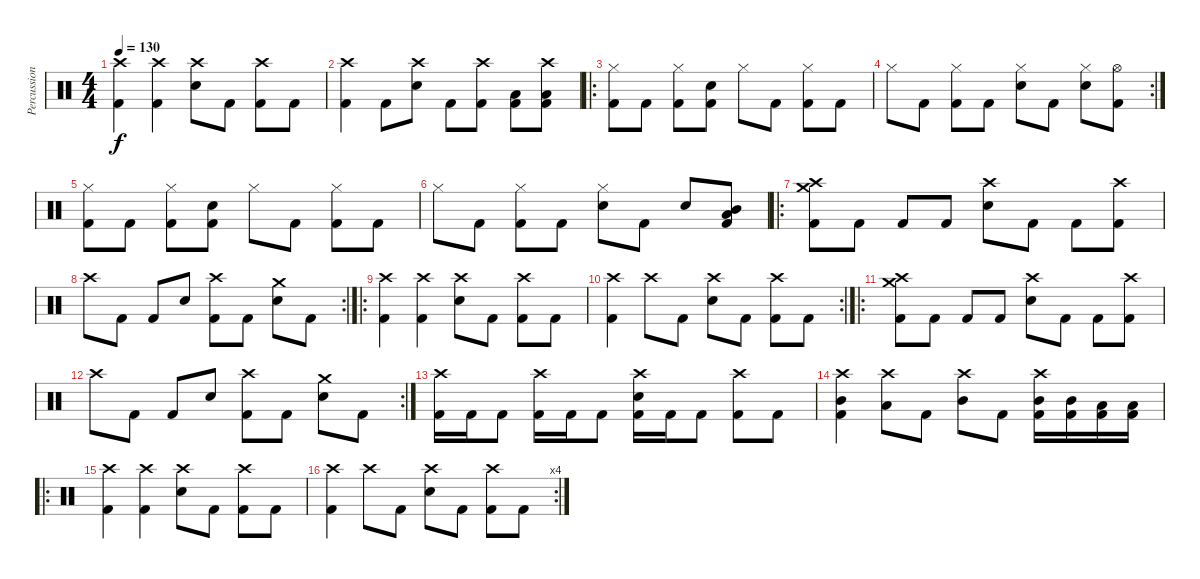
\track ("Percussion" "Percussion") {instrument percussion}
\staff {score}
\articulation defaults
\ts (4 4)
\tempo 130
\clef neutral
\ks c
("Crash high (hit)" "Kick (hit) 2").4{dy f} ("Crash high (hit)" "Kick (hit) 2").4 ("Crash high (hit)" "Electric Snare (hit)").8 "Kick (hit) 2".8 ("Crash high (hit)" "Kick (hit) 2").8 "Kick (hit) 2".8 |
("Crash high (hit)" "Kick (hit) 2").4 "Kick (hit) 2".8 ("Crash high (hit)" "Electric Snare (hit)").8 "Kick (hit) 2".8 ("Crash high (hit)" "Kick (hit) 2").8 ("Low Tom (hit)" "Kick (hit) 2").8 ("Crash high (hit)" "Low Floor Tom (hit)" "Kick (hit) 2").8 |
\ro
("Hi-Hat (closed)" "Kick (hit) 2").8 "Kick (hit) 2".8 ("Hi-Hat (closed)" "Kick (hit) 2").8 ("Electric Snare (hit)" "Kick (hit) 2").8 "Hi-Hat (closed)".8 "Kick (hit) 2".8 ("Hi-Hat (closed)" "Kick (hit) 2").8 "Kick (hit) 2".8 |
\rc 2 "Hi-Hat (closed)".8 "Kick (hit) 2".8
("Hi-Hat (closed)" "Kick (hit) 2").8 "Kick (hit) 2".8 ("Hi-Hat (closed)" "Electric Snare (hit)").8 "Kick (hit) 2".8 ("Hi-Hat (closed)" "Electric Snare (hit)").8 ("Hi-Hat (open)" "Kick (hit) 2").8 |
("Hi-Hat (closed)" "Kick (hit) 2").8 "Kick (hit) 2".8 ("Hi-Hat (closed)" "Kick (hit) 2").8 ("Electric Snare (hit)" "Kick (hit) 2").8 "Hi-Hat (closed)".8 "Kick (hit) 2".8 ("Hi-Hat (closed)" "Kick (hit) 2").8 "Kick (hit) 2".8 |
"Hi-Hat (closed)".8 "Kick (hit) 2".8 ("Hi-Hat (closed)" "Kick (hit) 2").8 "Kick (hit) 2".8 ("Hi-Hat (closed)" "Electric Snare (hit)").8 "Kick (hit) 2".8 "Electric Snare (hit)".8 ("Mid Tom (hit)" "Low Floor Tom (hit)" "Kick (hit) 2").8 |
\ro
("Crash medium (hit)" "Crash high (hit)" "Kick (hit) 2").8 "Kick (hit) 2".8 "Kick (hit) 2".8 "Kick (hit) 2".8 ("Crash high (hit)" "Electric Snare (hit)").8 "Kick (hit) 2".8 "Kick (hit) 2".8 ("Crash high (hit)" "Kick (hit) 2").8 |
\rc 2 "Crash high (hit)".8 "Kick (hit) 2".8 "Kick (hit) 2".8 "Electric Snare (hit)".8
("Crash high (hit)" "Kick (hit) 2").8 "Kick (hit) 2".8 ("Crash medium (hit)" "Electric Snare (hit)").8 "Kick (hit) 2".8 |
\ro
("Crash high (hit)" "Kick (hit) 2").4 ("Crash high (hit)" "Kick (hit) 2").4 ("Crash high (hit)" "Electric Snare (hit)").8 "Kick (hit) 2".8 ("Crash high (hit)" "Kick (hit) 2").8 "Kick (hit) 2".8 |
\rc 2
("Crash high (hit)" "Kick (hit) 2").4 "Crash high (hit)".8 "Kick (hit) 2".8 ("Crash high (hit)" "Electric Snare (hit)").8 "Kick (hit) 2".8 ("Crash high (hit)" "Kick (hit) 2").8 "Kick (hit) 2".8 |
\ro
("Crash medium (hit)" "Crash high (hit)" "Kick (hit) 2").8 "Kick (hit) 2".8 "Kick (hit) 2".8 "Kick (hit) 2".8 ("Crash high (hit)" "Electric Snare (hit)").8 "Kick (hit) 2".8 "Kick (hit) 2".8 ("Crash high (hit)" "Kick (hit) 2").8 |
\rc 2 "Crash high (hit)".8 "Kick (hit) 2".8 "Kick (hit) 2".8 "Electric Snare (hit)".8
("Crash high (hit)" "Kick (hit) 2").8 "Kick (hit) 2".8 ("Crash medium (hit)" "Electric Snare (hit)").8 "Kick (hit) 2".8 |
("Crash high (hit)" "Kick (hit) 2").16 "Kick (hit) 2".16 "Kick (hit) 2".8 ("Crash high (hit)" "Kick (hit) 2").16 "Kick (hit) 2".16 "Kick (hit) 2".8 ("Crash high (hit)" "Electric Snare (hit)" "Kick (hit) 2").16 "Kick (hit) 2".16 "Kick (hit) 2".8 ("Crash high (hit)" "Kick (hit) 2").8 "Kick (hit) 2".8 |
("Crash high (hit)" "Mid Tom (hit)" "Kick (hit) 2").4 ("Crash high (hit)" "Low Tom (hit)").8 "Kick (hit) 2".8 ("Crash high (hit)" "Mid Tom (hit)").8 "Kick (hit) 2".8 ("Crash high (hit)" "Mid Tom (hit)" "Kick (hit) 2").16 ("Mid Tom (hit)" "Kick (hit) 2").16 ("Low Tom (hit)" "Kick (hit) 2").16 ("Low Floor Tom (hit)" "Kick (hit) 2").16 |
\ro
("Crash high (hit)" "Kick (hit) 2").4 ("Crash high (hit)" "Kick (hit) 2").4 ("Crash high (hit)" "Electric Snare (hit)").8 "Kick (hit) 2".8 ("Crash high (hit)" "Kick (hit) 2").8 "Kick (hit) 2".8 |
\rc 4
("Crash high (hit)" "Kick (hit) 2").4 "Crash high (hit)".8 "Kick (hit) 2".8 ("Crash high (hit)" "Electric Snare (hit)").8 "Kick (hit) 2".8 ("Crash high (hit)" "Kick (hit) 2").8 "Kick (hit) 2".8
